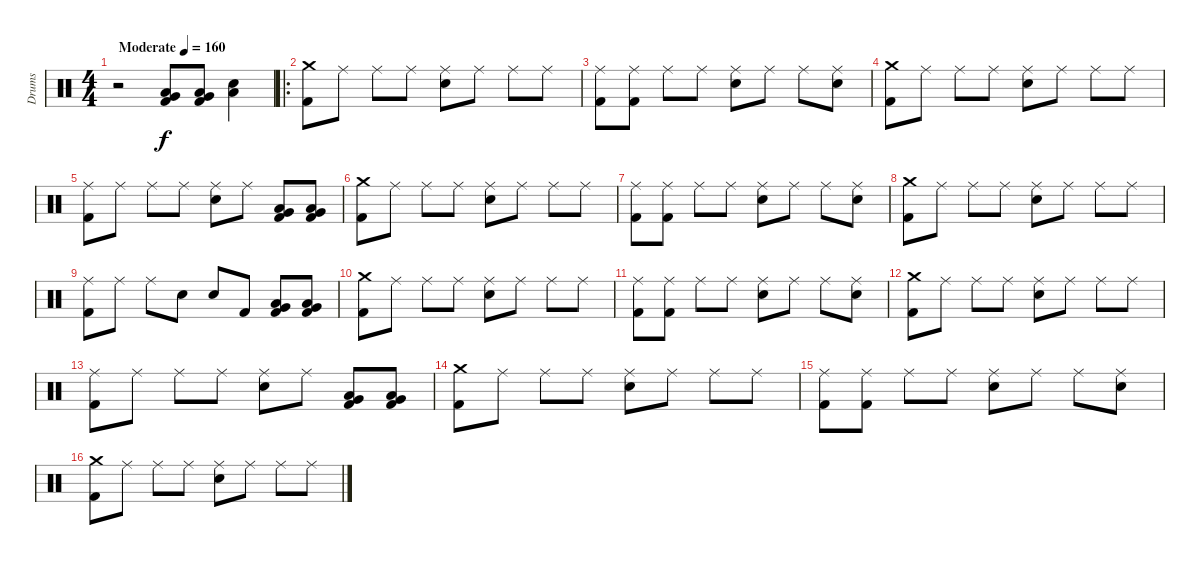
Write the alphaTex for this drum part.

\track ("Drums" "Drums") {instrument percussion}
\staff {score}
\articulation defaults
\ts (4 4)
\tempo (160 "Moderate")
\clef neutral
\ks c
r.2{dy f} ("Kick (hit) 2" "Very Low Tom (hit)" "Low Floor Tom (hit)").8 ("Kick (hit) 2" "Very Low Tom (hit)" "Low Floor Tom (hit)").8 ("Electric Snare (hit)" "Low Floor Tom (hit)").4 |
\ro
("Crash medium (hit)" "Kick (hit) 2").8 "Ride (middle)".8 "Ride (middle)".8 "Ride (middle)".8 ("Ride (middle)" "Electric Snare (hit)").8 "Ride (middle)".8 "Ride (middle)".8 "Ride (middle)".8 |
("Ride (middle)" "Kick (hit) 2").8 ("Ride (middle)" "Kick (hit) 2").8 "Ride (middle)".8 "Ride (middle)".8 ("Ride (middle)" "Electric Snare (hit)").8 "Ride (middle)".8 "Ride (middle)".8 ("Ride (middle)" "Electric Snare (hit)").8 |
("Crash medium (hit)" "Kick (hit) 2").8 "Ride (middle)".8 "Ride (middle)".8 "Ride (middle)".8 ("Ride (middle)" "Electric Snare (hit)").8 "Ride (middle)".8 "Ride (middle)".8 "Ride (middle)".8 |
("Ride (middle)" "Kick (hit) 2").8 "Ride (middle)".8 "Ride (middle)".8 "Ride (middle)".8 ("Ride (middle)" "Electric Snare (hit)").8 "Ride (middle)".8 ("Kick (hit) 2" "Very Low Tom (hit)" "Low Floor Tom (hit)").8 ("Kick (hit) 2" "Very Low Tom (hit)" "Low Floor Tom (hit)").8 |
("Crash medium (hit)" "Kick (hit) 2").8 "Ride (middle)".8 "Ride (middle)".8 "Ride (middle)".8 ("Ride (middle)" "Electric Snare (hit)").8 "Ride (middle)".8 "Ride (middle)".8 "Ride (middle)".8 |
("Ride (middle)" "Kick (hit) 2").8 ("Ride (middle)" "Kick (hit) 2").8 "Ride (middle)".8 "Ride (middle)".8 ("Ride (middle)" "Electric Snare (hit)").8 "Ride (middle)".8 "Ride (middle)".8 ("Ride (middle)" "Electric Snare (hit)").8 |
("Crash medium (hit)" "Kick (hit) 2").8 "Ride (middle)".8 "Ride (middle)".8 "Ride (middle)".8 ("Ride (middle)" "Electric Snare (hit)").8 "Ride (middle)".8 "Ride (middle)".8 "Ride (middle)".8 |
("Ride (middle)" "Kick (hit) 2").8 "Ride (middle)".8 "Ride (middle)".8 "Electric Snare (hit)".8 "Electric Snare (hit)".8 "Kick (hit) 2".8 ("Kick (hit) 2" "Very Low Tom (hit)" "Low Floor Tom (hit)").8 ("Kick (hit) 2" "Very Low Tom (hit)" "Low Floor Tom (hit)").8 |
("Crash medium (hit)" "Kick (hit) 2").8 "Ride (middle)".8 "Ride (middle)".8 "Ride (middle)".8 ("Ride (middle)" "Electric Snare (hit)").8 "Ride (middle)".8 "Ride (middle)".8 "Ride (middle)".8 |
("Ride (middle)" "Kick (hit) 2").8 ("Ride (middle)" "Kick (hit) 2").8 "Ride (middle)".8 "Ride (middle)".8 ("Ride (middle)" "Electric Snare (hit)").8 "Ride (middle)".8 "Ride (middle)".8 ("Ride (middle)" "Electric Snare (hit)").8 |
("Crash medium (hit)" "Kick (hit) 2").8 "Ride (middle)".8 "Ride (middle)".8 "Ride (middle)".8 ("Ride (middle)" "Electric Snare (hit)").8 "Ride (middle)".8 "Ride (middle)".8 "Ride (middle)".8 |
("Ride (middle)" "Kick (hit) 2").8 "Ride (middle)".8 "Ride (middle)".8 "Ride (middle)".8 ("Ride (middle)" "Electric Snare (hit)").8 "Ride (middle)".8 ("Kick (hit) 2" "Very Low Tom (hit)" "Low Floor Tom (hit)").8 ("Kick (hit) 2" "Very Low Tom (hit)" "Low Floor Tom (hit)").8 |
("Crash medium (hit)" "Kick (hit) 2").8 "Ride (middle)".8 "Ride (middle)".8 "Ride (middle)".8 ("Ride (middle)" "Electric Snare (hit)").8 "Ride (middle)".8 "Ride (middle)".8 "Ride (middle)".8 |
("Ride (middle)" "Kick (hit) 2").8 ("Ride (middle)" "Kick (hit) 2").8 "Ride (middle)".8 "Ride (middle)".8 ("Ride (middle)" "Electric Snare (hit)").8 "Ride (middle)".8 "Ride (middle)".8 ("Ride (middle)" "Electric Snare (hit)").8 |
("Crash medium (hit)" "Kick (hit) 2").8 "Ride (middle)".8 "Ride (middle)".8 "Ride (middle)".8 ("Ride (middle)" "Electric Snare (hit)").8 "Ride (middle)".8 "Ride (middle)".8 "Ride (middle)".8
